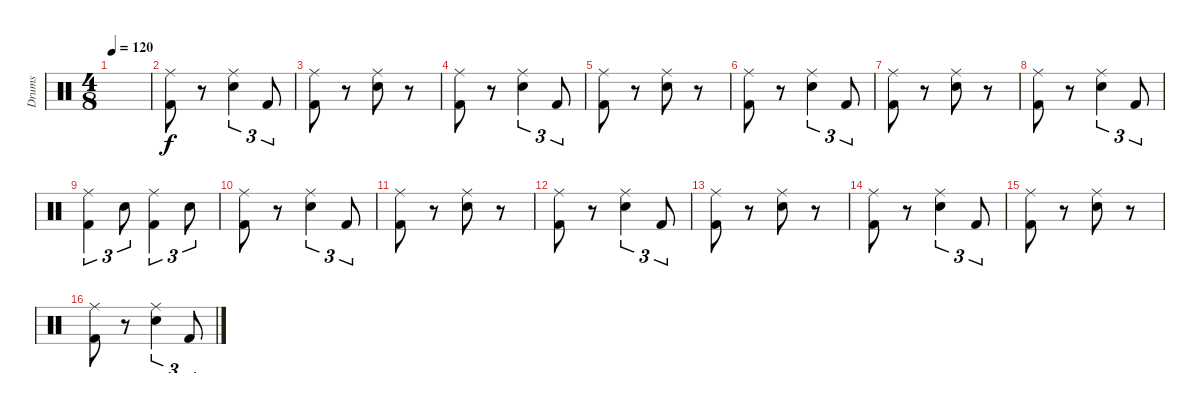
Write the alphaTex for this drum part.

\track ("Drums" "Drums") {instrument percussion}
\staff {score}
\articulation defaults
\ts (4 8)
\tempo 120
\clef neutral
\ks c
|
("Ride (middle)" "Kick (hit) 2").8 r.8 ("Ride (middle)" "Electric Snare (hit)").4{tu (3 2)} "Kick (hit) 2".8{tu (3 2)} |
("Ride (middle)" "Kick (hit) 2").8 r.8 ("Ride (middle)" "Electric Snare (hit)").8 r.8 |
("Ride (middle)" "Kick (hit) 2").8 r.8 ("Ride (middle)" "Electric Snare (hit)").4{tu (3 2)} "Kick (hit) 2".8{tu (3 2)} |
("Ride (middle)" "Kick (hit) 2").8 r.8 ("Ride (middle)" "Electric Snare (hit)").8 r.8 |
("Ride (middle)" "Kick (hit) 2").8 r.8 ("Ride (middle)" "Electric Snare (hit)").4{tu (3 2)} "Kick (hit) 2".8{tu (3 2)} |
("Ride (middle)" "Kick (hit) 2").8 r.8 ("Ride (middle)" "Electric Snare (hit)").8 r.8 |
("Ride (middle)" "Kick (hit) 2").8 r.8 ("Ride (middle)" "Electric Snare (hit)").4{tu (3 2)} "Kick (hit) 2".8{tu (3 2)} |
("Ride (middle)" "Kick (hit) 2").4{tu (3 2)} "Electric Snare (hit)".8{tu (3 2)} ("Ride (middle)" "Kick (hit) 2").4{tu (3 2)} "Electric Snare (hit)".8{tu (3 2)} |
("Ride (middle)" "Kick (hit) 2").8 r.8 ("Ride (middle)" "Electric Snare (hit)").4{tu (3 2)} "Kick (hit) 2".8{tu (3 2)} |
("Ride (middle)" "Kick (hit) 2").8 r.8 ("Ride (middle)" "Electric Snare (hit)").8 r.8 |
("Ride (middle)" "Kick (hit) 2").8 r.8 ("Ride (middle)" "Electric Snare (hit)").4{tu (3 2)} "Kick (hit) 2".8{tu (3 2)} |
("Ride (middle)" "Kick (hit) 2").8 r.8 ("Ride (middle)" "Electric Snare (hit)").8 r.8 |
("Ride (middle)" "Kick (hit) 2").8 r.8 ("Ride (middle)" "Electric Snare (hit)").4{tu (3 2)} "Kick (hit) 2".8{tu (3 2)} |
("Ride (middle)" "Kick (hit) 2").8 r.8 ("Ride (middle)" "Electric Snare (hit)").8 r.8 |
("Ride (middle)" "Kick (hit) 2").8 r.8 ("Ride (middle)" "Electric Snare (hit)").4{tu (3 2)} "Kick (hit) 2".8{tu (3 2)}
